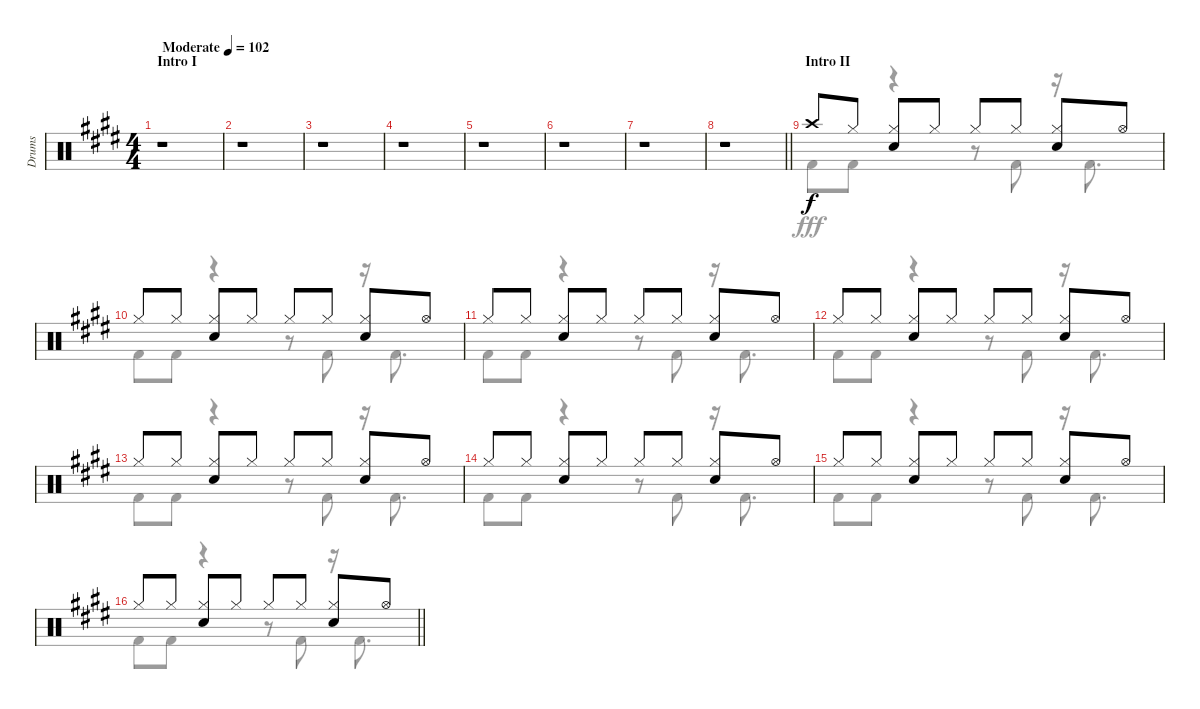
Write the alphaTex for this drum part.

\track ("Drums" "Drums") {instrument percussion}
\staff {score}
\articulation defaults
\voice
\ts (4 4)
\section ("" "Intro I")
\tempo (102 "Moderate")
\clef neutral
\ks e
r.1{dy f} |
r.1 |
r.1 |
r.1 |
r.1 |
r.1 |
r.1 |
\barLineRight lightlight
r.1 |
\section ("" "Intro II")
"Crash high (hit)".8 "Hi-Hat (closed)".8 ("Hi-Hat (closed)" "Snare (hit) 2").8 "Hi-Hat (closed)".8 "Hi-Hat (closed)".8 "Hi-Hat (closed)".8 ("Hi-Hat (closed)" "Snare (hit) 2").8 "Hi-Hat (open)".8 |
"Hi-Hat (closed)".8 "Hi-Hat (closed)".8 ("Hi-Hat (closed)" "Snare (hit) 2").8 "Hi-Hat (closed)".8 "Hi-Hat (closed)".8 "Hi-Hat (closed)".8 ("Hi-Hat (closed)" "Snare (hit) 2").8 "Hi-Hat (open)".8 |
"Hi-Hat (closed)".8 "Hi-Hat (closed)".8 ("Hi-Hat (closed)" "Snare (hit) 2").8 "Hi-Hat (closed)".8 "Hi-Hat (closed)".8 "Hi-Hat (closed)".8 ("Hi-Hat (closed)" "Snare (hit) 2").8 "Hi-Hat (open)".8 |
"Hi-Hat (closed)".8 "Hi-Hat (closed)".8 ("Hi-Hat (closed)" "Snare (hit) 2").8 "Hi-Hat (closed)".8 "Hi-Hat (closed)".8 "Hi-Hat (closed)".8 ("Hi-Hat (closed)" "Snare (hit) 2").8 "Hi-Hat (open)".8 |
"Hi-Hat (closed)".8 "Hi-Hat (closed)".8 ("Hi-Hat (closed)" "Snare (hit) 2").8 "Hi-Hat (closed)".8 "Hi-Hat (closed)".8 "Hi-Hat (closed)".8 ("Hi-Hat (closed)" "Snare (hit) 2").8 "Hi-Hat (open)".8 |
"Hi-Hat (closed)".8 "Hi-Hat (closed)".8 ("Hi-Hat (closed)" "Snare (hit) 2").8 "Hi-Hat (closed)".8 "Hi-Hat (closed)".8 "Hi-Hat (closed)".8 ("Hi-Hat (closed)" "Snare (hit) 2").8 "Hi-Hat (open)".8 |
"Hi-Hat (closed)".8 "Hi-Hat (closed)".8 ("Hi-Hat (closed)" "Snare (hit) 2").8 "Hi-Hat (closed)".8 "Hi-Hat (closed)".8 "Hi-Hat (closed)".8 ("Hi-Hat (closed)" "Snare (hit) 2").8 "Hi-Hat (open)".8 |
\barLineRight lightlight "Hi-Hat (closed)".8 "Hi-Hat (closed)".8
("Hi-Hat (closed)" "Snare (hit) 2").8 "Hi-Hat (closed)".8 "Hi-Hat (closed)".8 "Hi-Hat (closed)".8 ("Hi-Hat (closed)" "Snare (hit) 2").8 "Hi-Hat (open)".8
\voice
\clef neutral
\ottava regular
\simile none
\ks e
r.1{dy fff} |
r.1 |
r.1 |
r.1 |
r.1 |
r.1 |
r.1 |
\barLineRight lightlight
r.1 |
"Kick (hit) 2".8 "Kick (hit) 2".8 r.4 r.8 "Kick (hit) 2".8 r.16 "Kick (hit) 2".8{d} |
"Kick (hit) 2".8 "Kick (hit) 2".8 r.4 r.8 "Kick (hit) 2".8 r.16 "Kick (hit) 2".8{d} |
"Kick (hit) 2".8 "Kick (hit) 2".8 r.4 r.8 "Kick (hit) 2".8 r.16 "Kick (hit) 2".8{d} |
"Kick (hit) 2".8 "Kick (hit) 2".8 r.4 r.8 "Kick (hit) 2".8 r.16 "Kick (hit) 2".8{d} |
"Kick (hit) 2".8 "Kick (hit) 2".8 r.4 r.8 "Kick (hit) 2".8 r.16 "Kick (hit) 2".8{d} |
"Kick (hit) 2".8 "Kick (hit) 2".8 r.4 r.8 "Kick (hit) 2".8 r.16 "Kick (hit) 2".8{d} |
"Kick (hit) 2".8 "Kick (hit) 2".8 r.4 r.8 "Kick (hit) 2".8 r.16 "Kick (hit) 2".8{d} |
\barLineRight lightlight "Kick (hit) 2".8 "Kick (hit) 2".8
r.4 r.8 "Kick (hit) 2".8 r.16 "Kick (hit) 2".8{d}
